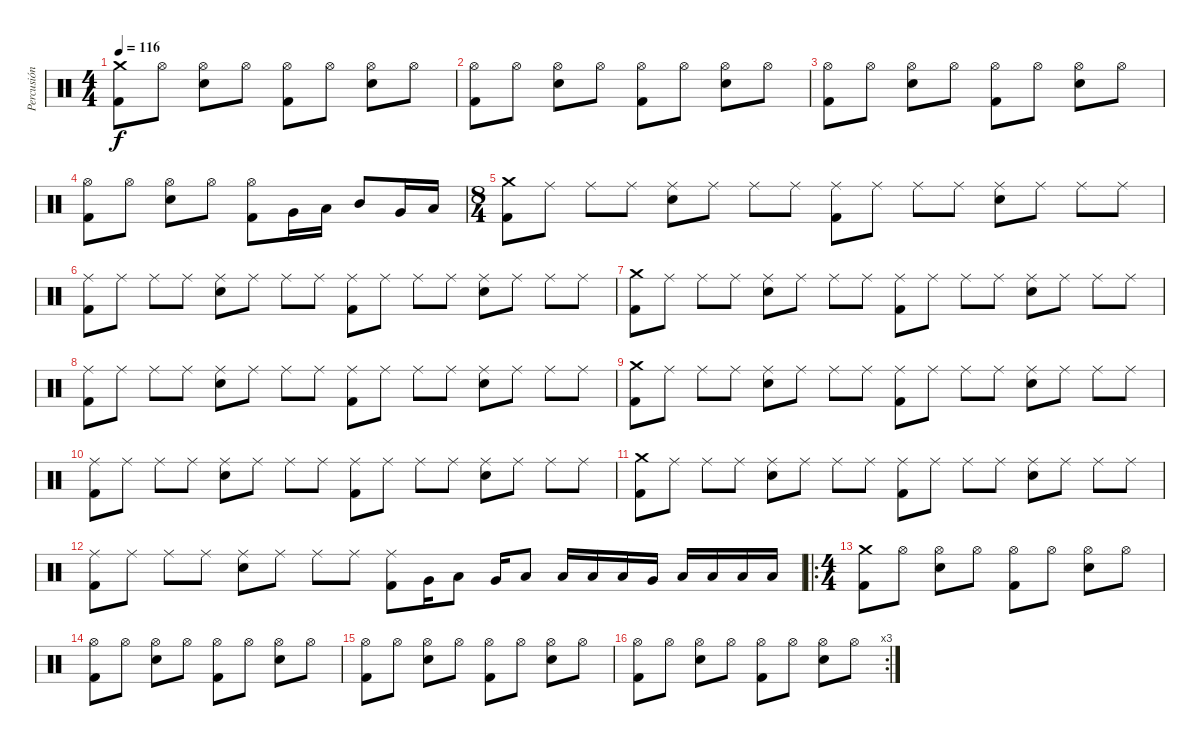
\track ("Percusión" "Percusión") {instrument percussion}
\staff {score}
\articulation defaults
\ts (4 4)
\tempo 116
\clef neutral
\ks c
("Crash medium (hit)" "Kick (hit) 2").8{dy f} "Hi-Hat (open)".8 ("Hi-Hat (open)" "Electric Snare (hit)").8 "Hi-Hat (open)".8 ("Hi-Hat (open)" "Kick (hit) 2").8 "Hi-Hat (open)".8 ("Hi-Hat (open)" "Electric Snare (hit)").8 "Hi-Hat (open)".8 |
("Hi-Hat (open)" "Kick (hit) 2").8 "Hi-Hat (open)".8 ("Hi-Hat (open)" "Electric Snare (hit)").8 "Hi-Hat (open)".8 ("Hi-Hat (open)" "Kick (hit) 2").8 "Hi-Hat (open)".8 ("Hi-Hat (open)" "Electric Snare (hit)").8 "Hi-Hat (open)".8 |
("Hi-Hat (open)" "Kick (hit) 2").8 "Hi-Hat (open)".8 ("Hi-Hat (open)" "Electric Snare (hit)").8 "Hi-Hat (open)".8 ("Hi-Hat (open)" "Kick (hit) 2").8 "Hi-Hat (open)".8 ("Hi-Hat (open)" "Electric Snare (hit)").8 "Hi-Hat (open)".8 |
("Hi-Hat (open)" "Kick (hit) 2").8 "Hi-Hat (open)".8 ("Hi-Hat (open)" "Electric Snare (hit)").8 "Hi-Hat (open)".8 ("Hi-Hat (open)" "Kick (hit) 2").8 "Very Low Tom (hit)".16 "Low Tom (hit)".16 "Mid Tom (hit)".8 "Very Low Tom (hit)".16 "Low Tom (hit)".16 |
\ts (8 4)
("Crash medium (hit)" "Kick (hit) 2").8 "Ride (middle)".8 "Ride (middle)".8 "Ride (middle)".8 ("Ride (middle)" "Electric Snare (hit)").8 "Ride (middle)".8 "Ride (middle)".8 "Ride (middle)".8 ("Ride (middle)" "Kick (hit) 2").8 "Ride (middle)".8 "Ride (middle)".8 "Ride (middle)".8 ("Ride (middle)" "Electric Snare (hit)").8 "Ride (middle)".8 "Ride (middle)".8 "Ride (middle)".8 |
("Ride (middle)" "Kick (hit) 2").8 "Ride (middle)".8 "Ride (middle)".8 "Ride (middle)".8 ("Ride (middle)" "Electric Snare (hit)").8 "Ride (middle)".8 "Ride (middle)".8 "Ride (middle)".8 ("Ride (middle)" "Kick (hit) 2").8 "Ride (middle)".8 "Ride (middle)".8 "Ride (middle)".8 ("Ride (middle)" "Electric Snare (hit)").8 "Ride (middle)".8 "Ride (middle)".8 "Ride (middle)".8 |
("Crash medium (hit)" "Kick (hit) 2").8 "Ride (middle)".8 "Ride (middle)".8 "Ride (middle)".8 ("Ride (middle)" "Electric Snare (hit)").8 "Ride (middle)".8 "Ride (middle)".8 "Ride (middle)".8 ("Ride (middle)" "Kick (hit) 2").8 "Ride (middle)".8 "Ride (middle)".8 "Ride (middle)".8 ("Ride (middle)" "Electric Snare (hit)").8 "Ride (middle)".8 "Ride (middle)".8 "Ride (middle)".8 |
("Ride (middle)" "Kick (hit) 2").8 "Ride (middle)".8 "Ride (middle)".8 "Ride (middle)".8 ("Ride (middle)" "Electric Snare (hit)").8 "Ride (middle)".8 "Ride (middle)".8 "Ride (middle)".8 ("Ride (middle)" "Kick (hit) 2").8 "Ride (middle)".8 "Ride (middle)".8 "Ride (middle)".8 ("Ride (middle)" "Electric Snare (hit)").8 "Ride (middle)".8 "Ride (middle)".8 "Ride (middle)".8 |
("Crash medium (hit)" "Kick (hit) 2").8 "Ride (middle)".8 "Ride (middle)".8 "Ride (middle)".8 ("Ride (middle)" "Electric Snare (hit)").8 "Ride (middle)".8 "Ride (middle)".8 "Ride (middle)".8 ("Ride (middle)" "Kick (hit) 2").8 "Ride (middle)".8 "Ride (middle)".8 "Ride (middle)".8 ("Ride (middle)" "Electric Snare (hit)").8 "Ride (middle)".8 "Ride (middle)".8 "Ride (middle)".8 |
("Ride (middle)" "Kick (hit) 2").8 "Ride (middle)".8 "Ride (middle)".8 "Ride (middle)".8 ("Ride (middle)" "Electric Snare (hit)").8 "Ride (middle)".8 "Ride (middle)".8 "Ride (middle)".8 ("Ride (middle)" "Kick (hit) 2").8 "Ride (middle)".8 "Ride (middle)".8 "Ride (middle)".8 ("Ride (middle)" "Electric Snare (hit)").8 "Ride (middle)".8 "Ride (middle)".8 "Ride (middle)".8 |
("Crash medium (hit)" "Kick (hit) 2").8 "Ride (middle)".8 "Ride (middle)".8 "Ride (middle)".8 ("Ride (middle)" "Electric Snare (hit)").8 "Ride (middle)".8 "Ride (middle)".8 "Ride (middle)".8 ("Ride (middle)" "Kick (hit) 2").8 "Ride (middle)".8 "Ride (middle)".8 "Ride (middle)".8 ("Ride (middle)" "Electric Snare (hit)").8 "Ride (middle)".8 "Ride (middle)".8 "Ride (middle)".8 |
("Ride (middle)" "Kick (hit) 2").8 "Ride (middle)".8 "Ride (middle)".8 "Ride (middle)".8 ("Ride (middle)" "Electric Snare (hit)").8 "Ride (middle)".8 "Ride (middle)".8 "Ride (middle)".8 ("Ride (middle)" "Kick (hit) 2").8 "Very Low Tom (hit)".16 "Low Tom (hit)".8 "Very Low Tom (hit)".16 "Low Tom (hit)".8 "Low Floor Tom (hit)".16 "Low Tom (hit)".16 "Low Tom (hit)".16 "Very Low Tom (hit)".16 "Low Tom (hit)".16 "Low Tom (hit)".16 "Low Tom (hit)".16 "Low Tom (hit)".16 |
\ro
\ts (4 4)
("Crash medium (hit)" "Kick (hit) 2").8 "Hi-Hat (open)".8 ("Hi-Hat (open)" "Electric Snare (hit)").8 "Hi-Hat (open)".8 ("Hi-Hat (open)" "Kick (hit) 2").8 "Hi-Hat (open)".8 ("Hi-Hat (open)" "Electric Snare (hit)").8 "Hi-Hat (open)".8 |
("Hi-Hat (open)" "Kick (hit) 2").8 "Hi-Hat (open)".8 ("Hi-Hat (open)" "Electric Snare (hit)").8 "Hi-Hat (open)".8 ("Hi-Hat (open)" "Kick (hit) 2").8 "Hi-Hat (open)".8 ("Hi-Hat (open)" "Electric Snare (hit)").8 "Hi-Hat (open)".8 |
("Hi-Hat (open)" "Kick (hit) 2").8 "Hi-Hat (open)".8 ("Hi-Hat (open)" "Electric Snare (hit)").8 "Hi-Hat (open)".8 ("Hi-Hat (open)" "Kick (hit) 2").8 "Hi-Hat (open)".8 ("Hi-Hat (open)" "Electric Snare (hit)").8 "Hi-Hat (open)".8 |
\rc 3
("Hi-Hat (open)" "Kick (hit) 2").8 "Hi-Hat (open)".8 ("Hi-Hat (open)" "Electric Snare (hit)").8 "Hi-Hat (open)".8 ("Hi-Hat (open)" "Kick (hit) 2").8 "Hi-Hat (open)".8 ("Hi-Hat (open)" "Electric Snare (hit)").8 "Hi-Hat (open)".8
